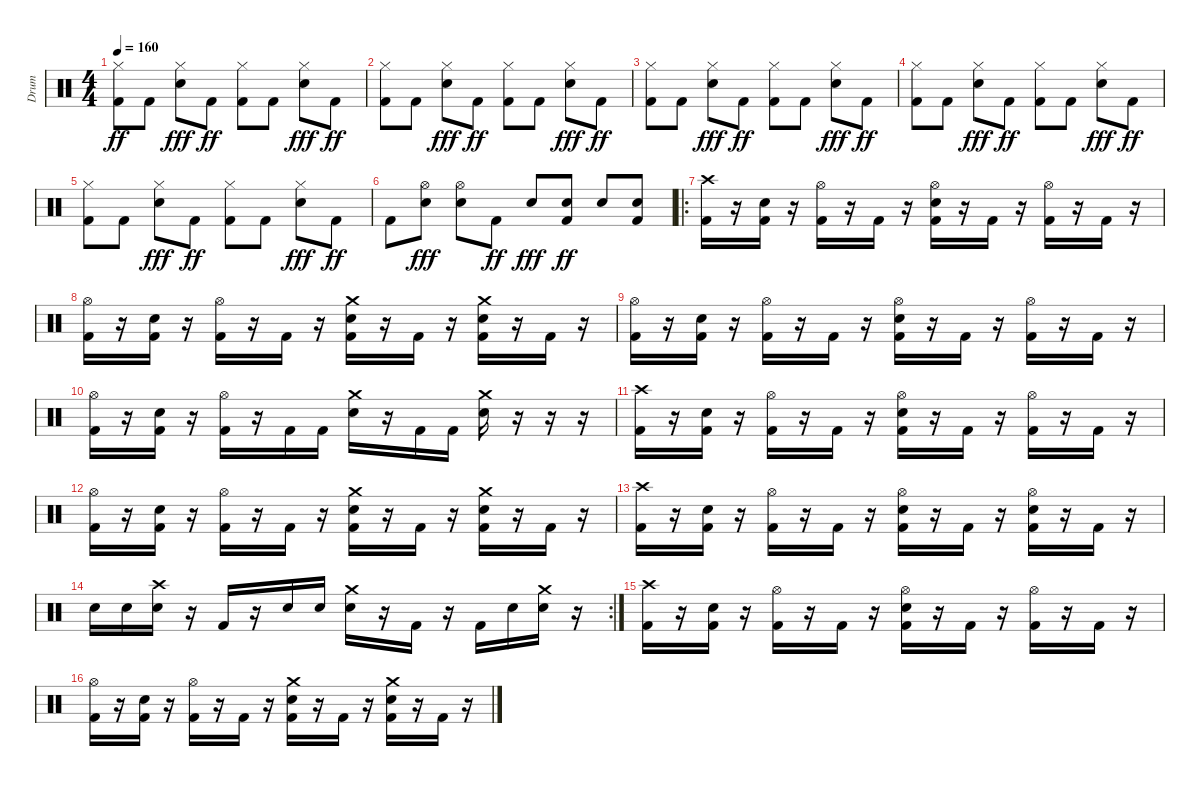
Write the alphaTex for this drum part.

\track ("Drum" "Drum") {instrument percussion}
\staff {score}
\articulation defaults
\ts (4 4)
\tempo 160
\clef neutral
\ks c
("Hi-Hat (closed)" "Kick (hit) 2").8{dy ff} "Kick (hit) 2".8 ("Hi-Hat (closed)" "Snare (hit) 2").8{dy fff} "Kick (hit) 2".8{dy ff} ("Hi-Hat (closed)" "Kick (hit) 2").8 "Kick (hit) 2".8 ("Hi-Hat (closed)" "Snare (hit) 2").8{dy fff} "Kick (hit) 2".8{dy ff} |
("Hi-Hat (closed)" "Kick (hit) 2").8 "Kick (hit) 2".8 ("Hi-Hat (closed)" "Snare (hit) 2").8{dy fff} "Kick (hit) 2".8{dy ff} ("Hi-Hat (closed)" "Kick (hit) 2").8 "Kick (hit) 2".8 ("Hi-Hat (closed)" "Snare (hit) 2").8{dy fff} "Kick (hit) 2".8{dy ff} |
("Hi-Hat (closed)" "Kick (hit) 2").8 "Kick (hit) 2".8 ("Hi-Hat (closed)" "Snare (hit) 2").8{dy fff} "Kick (hit) 2".8{dy ff} ("Hi-Hat (closed)" "Kick (hit) 2").8 "Kick (hit) 2".8 ("Hi-Hat (closed)" "Snare (hit) 2").8{dy fff} "Kick (hit) 2".8{dy ff} |
("Hi-Hat (closed)" "Kick (hit) 2").8 "Kick (hit) 2".8 ("Hi-Hat (closed)" "Snare (hit) 2").8{dy fff} "Kick (hit) 2".8{dy ff} ("Hi-Hat (closed)" "Kick (hit) 2").8 "Kick (hit) 2".8 ("Hi-Hat (closed)" "Snare (hit) 2").8{dy fff} "Kick (hit) 2".8{dy ff} |
("Hi-Hat (closed)" "Kick (hit) 2").8 "Kick (hit) 2".8 ("Hi-Hat (closed)" "Snare (hit) 2").8{dy fff} "Kick (hit) 2".8{dy ff} ("Hi-Hat (closed)" "Kick (hit) 2").8 "Kick (hit) 2".8 ("Hi-Hat (closed)" "Snare (hit) 2").8{dy fff} "Kick (hit) 2".8{dy ff} |
"Kick (hit) 2".8 ("Hi-Hat (open)" "Snare (hit) 2").8{dy fff} ("Hi-Hat (open)" "Snare (hit) 2").8 "Kick (hit) 2".8{dy ff} "Snare (hit) 2".8{dy fff} ("Snare (hit) 2" "Kick (hit) 2").8{dy ff} "Snare (hit) 2".8 ("Snare (hit) 2" "Kick (hit) 2").8 |
\ro
("Crash high (hit)" "Kick (hit) 2").16 r.16 ("Snare (hit) 2" "Kick (hit) 2").16 r.16 ("Hi-Hat (open)" "Kick (hit) 2").16 r.16 "Kick (hit) 2".16 r.16 ("Hi-Hat (open)" "Snare (hit) 2" "Kick (hit) 2").16 r.16 "Kick (hit) 2".16 r.16 ("Hi-Hat (open)" "Kick (hit) 2").16 r.16 "Kick (hit) 2".16 r.16 |
("Hi-Hat (open)" "Kick (hit) 2").16 r.16 ("Snare (hit) 2" "Kick (hit) 2").16 r.16 ("Hi-Hat (open)" "Kick (hit) 2").16 r.16 "Kick (hit) 2".16 r.16 ("Crash medium (hit)" "Snare (hit) 2" "Kick (hit) 2").16 r.16 "Kick (hit) 2".16 r.16 ("Crash medium (hit)" "Snare (hit) 2" "Kick (hit) 2").16 r.16 "Kick (hit) 2".16 r.16 |
("Hi-Hat (open)" "Kick (hit) 2").16 r.16 ("Snare (hit) 2" "Kick (hit) 2").16 r.16 ("Hi-Hat (open)" "Kick (hit) 2").16 r.16 "Kick (hit) 2".16 r.16 ("Hi-Hat (open)" "Snare (hit) 2" "Kick (hit) 2").16 r.16 "Kick (hit) 2".16 r.16 ("Hi-Hat (open)" "Kick (hit) 2").16 r.16 "Kick (hit) 2".16 r.16 |
("Hi-Hat (open)" "Kick (hit) 2").16 r.16 ("Snare (hit) 2" "Kick (hit) 2").16 r.16 ("Hi-Hat (open)" "Kick (hit) 2").16 r.16 "Kick (hit) 2".16 "Kick (hit) 2".16 ("Crash medium (hit)" "Snare (hit) 2").16 r.16 "Kick (hit) 2".16 "Kick (hit) 2".16 ("Crash medium (hit)" "Snare (hit) 2").16 r.16 r.16 r.16 |
("Crash high (hit)" "Kick (hit) 2").16 r.16 ("Snare (hit) 2" "Kick (hit) 2").16 r.16 ("Hi-Hat (open)" "Kick (hit) 2").16 r.16 "Kick (hit) 2".16 r.16 ("Hi-Hat (open)" "Snare (hit) 2" "Kick (hit) 2").16 r.16 "Kick (hit) 2".16 r.16 ("Hi-Hat (open)" "Kick (hit) 2").16 r.16 "Kick (hit) 2".16 r.16 |
("Hi-Hat (open)" "Kick (hit) 2").16 r.16 ("Snare (hit) 2" "Kick (hit) 2").16 r.16 ("Hi-Hat (open)" "Kick (hit) 2").16 r.16 "Kick (hit) 2".16 r.16 ("Crash medium (hit)" "Snare (hit) 2" "Kick (hit) 2").16 r.16 "Kick (hit) 2".16 r.16 ("Crash medium (hit)" "Snare (hit) 2" "Kick (hit) 2").16 r.16 "Kick (hit) 2".16 r.16 |
("Crash high (hit)" "Kick (hit) 2").16 r.16 ("Snare (hit) 2" "Kick (hit) 2").16 r.16 ("Hi-Hat (open)" "Kick (hit) 2").16 r.16 "Kick (hit) 2".16 r.16 ("Hi-Hat (open)" "Snare (hit) 2" "Kick (hit) 2").16 r.16 "Kick (hit) 2".16 r.16 ("Hi-Hat (open)" "Snare (hit) 2" "Kick (hit) 2").16 r.16 "Kick (hit) 2".16 r.16 |
\rc 2 "Snare (hit) 2".16 "Snare (hit) 2".16
("Crash high (hit)" "Snare (hit) 2").16 r.16 "Kick (hit) 2".16 r.16 "Snare (hit) 2".16 "Snare (hit) 2".16 ("Crash medium (hit)" "Snare (hit) 2").16 r.16 "Kick (hit) 2".16 r.16 "Kick (hit) 2".16 "Snare (hit) 2".16 ("Crash medium (hit)" "Snare (hit) 2").16 r.16 |
("Crash high (hit)" "Kick (hit) 2").16 r.16 ("Snare (hit) 2" "Kick (hit) 2").16 r.16 ("Hi-Hat (open)" "Kick (hit) 2").16 r.16 "Kick (hit) 2".16 r.16 ("Hi-Hat (open)" "Snare (hit) 2" "Kick (hit) 2").16 r.16 "Kick (hit) 2".16 r.16 ("Hi-Hat (open)" "Kick (hit) 2").16 r.16 "Kick (hit) 2".16 r.16 |
("Hi-Hat (open)" "Kick (hit) 2").16 r.16 ("Snare (hit) 2" "Kick (hit) 2").16 r.16 ("Hi-Hat (open)" "Kick (hit) 2").16 r.16 "Kick (hit) 2".16 r.16 ("Crash medium (hit)" "Snare (hit) 2" "Kick (hit) 2").16 r.16 "Kick (hit) 2".16 r.16 ("Crash medium (hit)" "Snare (hit) 2" "Kick (hit) 2").16 r.16 "Kick (hit) 2".16 r.16
